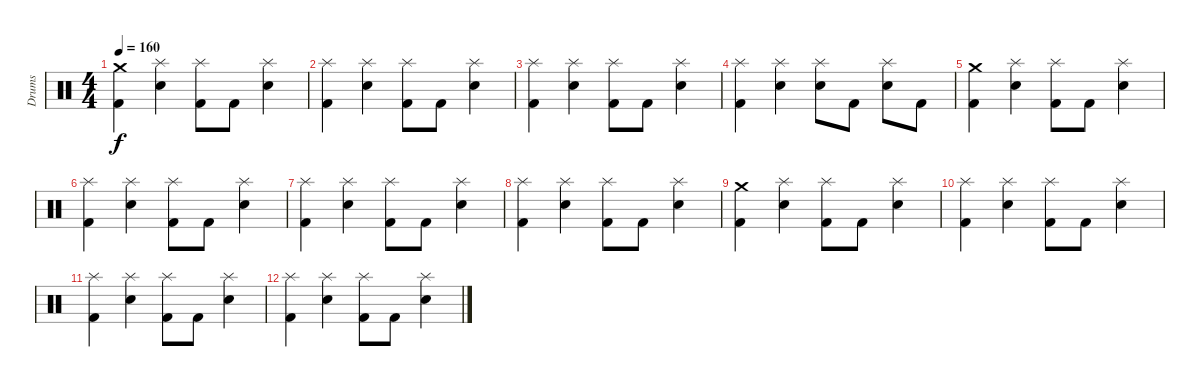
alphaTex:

\track ("Drums" "Drums") {instrument percussion}
\staff {score}
\articulation defaults
\ts (4 4)
\tempo 160
\clef neutral
\ks c
("Kick (hit) 2" "Crash medium (hit)").4{dy f} ("Splash (hit)" "Electric Snare (hit)").4 ("Kick (hit) 2" "Splash (hit)").8 "Kick (hit) 2".8 ("Splash (hit)" "Electric Snare (hit)").4 |
("Kick (hit) 2" "Splash (hit)").4 ("Splash (hit)" "Electric Snare (hit)").4 ("Kick (hit) 2" "Splash (hit)").8 "Kick (hit) 2".8 ("Splash (hit)" "Electric Snare (hit)").4 |
("Kick (hit) 2" "Splash (hit)").4 ("Electric Snare (hit)" "Splash (hit)").4 ("Kick (hit) 2" "Splash (hit)").8 "Kick (hit) 2".8 ("Electric Snare (hit)" "Splash (hit)").4 |
("Kick (hit) 2" "Splash (hit)").4 ("Electric Snare (hit)" "Splash (hit)").4 ("Snare (hit) 2" "Splash (hit)").8 "Kick (hit) 2".8 ("Electric Snare (hit)" "Splash (hit)").8 "Kick (hit) 2".8 |
("Kick (hit) 2" "Crash medium (hit)").4 ("Splash (hit)" "Electric Snare (hit)").4 ("Kick (hit) 2" "Splash (hit)").8 "Kick (hit) 2".8 ("Splash (hit)" "Electric Snare (hit)").4 |
("Kick (hit) 2" "Splash (hit)").4 ("Splash (hit)" "Electric Snare (hit)").4 ("Kick (hit) 2" "Splash (hit)").8 "Kick (hit) 2".8 ("Splash (hit)" "Electric Snare (hit)").4 |
("Kick (hit) 2" "Splash (hit)").4 ("Electric Snare (hit)" "Splash (hit)").4 ("Kick (hit) 2" "Splash (hit)").8 "Kick (hit) 2".8 ("Electric Snare (hit)" "Splash (hit)").4 |
("Kick (hit) 2" "Splash (hit)").4 ("Electric Snare (hit)" "Splash (hit)").4 ("Kick (hit) 2" "Splash (hit)").8 "Kick (hit) 2".8 ("Electric Snare (hit)" "Splash (hit)").4 |
("Kick (hit) 2" "Crash medium (hit)").4 ("Splash (hit)" "Electric Snare (hit)").4 ("Kick (hit) 2" "Splash (hit)").8 "Kick (hit) 2".8 ("Splash (hit)" "Electric Snare (hit)").4 |
("Kick (hit) 2" "Splash (hit)").4 ("Splash (hit)" "Electric Snare (hit)").4 ("Kick (hit) 2" "Splash (hit)").8 "Kick (hit) 2".8 ("Splash (hit)" "Electric Snare (hit)").4 |
("Kick (hit) 2" "Splash (hit)").4 ("Electric Snare (hit)" "Splash (hit)").4 ("Kick (hit) 2" "Splash (hit)").8 "Kick (hit) 2".8 ("Electric Snare (hit)" "Splash (hit)").4 |
("Kick (hit) 2" "Splash (hit)").4 ("Electric Snare (hit)" "Splash (hit)").4 ("Kick (hit) 2" "Splash (hit)").8 "Kick (hit) 2".8 ("Electric Snare (hit)" "Splash (hit)").4
